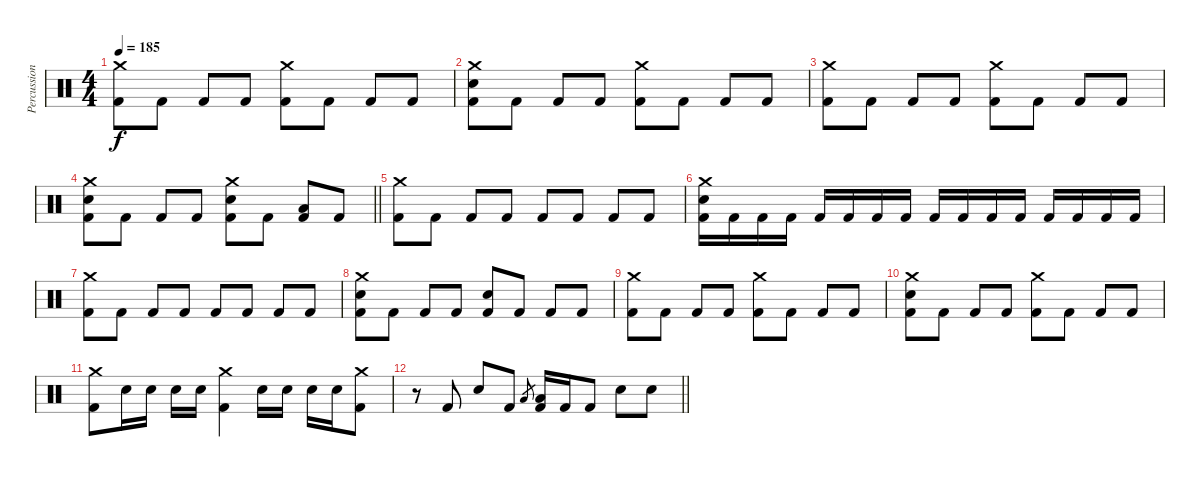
\track ("Percussions" "Percussion") {instrument percussion}
\staff {score}
\articulation defaults
\ts (4 4)
\tempo 185
\clef neutral
\ks c
("Crash medium (hit)" "Kick (hit) 2").8{dy f} "Kick (hit) 2".8 "Kick (hit) 2".8 "Kick (hit) 2".8 ("Crash medium (hit)" "Kick (hit) 2").8 "Kick (hit) 2".8 "Kick (hit) 2".8 "Kick (hit) 2".8 |
("Crash medium (hit)" "Electric Snare (hit)" "Kick (hit) 2").8 "Kick (hit) 2".8 "Kick (hit) 2".8 "Kick (hit) 2".8 ("Crash medium (hit)" "Kick (hit) 2").8 "Kick (hit) 2".8 "Kick (hit) 2".8 "Kick (hit) 2".8 |
("Crash medium (hit)" "Kick (hit) 2").8 "Kick (hit) 2".8 "Kick (hit) 2".8 "Kick (hit) 2".8 ("Crash medium (hit)" "Kick (hit) 2").8 "Kick (hit) 2".8 "Kick (hit) 2".8 "Kick (hit) 2".8 |
\barLineRight lightlight
("Crash medium (hit)" "Electric Snare (hit)" "Kick (hit) 2").8 "Kick (hit) 2".8 "Kick (hit) 2".8 "Kick (hit) 2".8 ("Crash medium (hit)" "Electric Snare (hit)" "Kick (hit) 2").8 "Kick (hit) 2".8 ("Low Tom (hit)" "Kick (hit) 2").8 "Kick (hit) 2".8 |
("Crash medium (hit)" "Kick (hit) 2").8 "Kick (hit) 2".8 "Kick (hit) 2".8 "Kick (hit) 2".8 "Kick (hit) 2".8 "Kick (hit) 2".8 "Kick (hit) 2".8 "Kick (hit) 2".8 |
("Crash medium (hit)" "Electric Snare (hit)" "Kick (hit) 2").16 "Kick (hit) 2".16 "Kick (hit) 2".16 "Kick (hit) 2".16 "Kick (hit) 2".16 "Kick (hit) 2".16 "Kick (hit) 2".16 "Kick (hit) 2".16 "Kick (hit) 2".16 "Kick (hit) 2".16 "Kick (hit) 2".16 "Kick (hit) 2".16 "Kick (hit) 2".16 "Kick (hit) 2".16 "Kick (hit) 2".16 "Kick (hit) 2".16 |
("Crash medium (hit)" "Kick (hit) 2").8 "Kick (hit) 2".8 "Kick (hit) 2".8 "Kick (hit) 2".8 "Kick (hit) 2".8 "Kick (hit) 2".8 "Kick (hit) 2".8 "Kick (hit) 2".8 |
("Crash medium (hit)" "Electric Snare (hit)" "Kick (hit) 2").8 "Kick (hit) 2".8 "Kick (hit) 2".8 "Kick (hit) 2".8 ("Electric Snare (hit)" "Kick (hit) 2").8 "Kick (hit) 2".8 "Kick (hit) 2".8 "Kick (hit) 2".8 |
("Crash medium (hit)" "Kick (hit) 2").8 "Kick (hit) 2".8 "Kick (hit) 2".8 "Kick (hit) 2".8 ("Crash medium (hit)" "Kick (hit) 2").8 "Kick (hit) 2".8 "Kick (hit) 2".8 "Kick (hit) 2".8 |
("Crash medium (hit)" "Electric Snare (hit)" "Kick (hit) 2").8 "Kick (hit) 2".8 "Kick (hit) 2".8 "Kick (hit) 2".8 ("Crash medium (hit)" "Kick (hit) 2").8 "Kick (hit) 2".8 "Kick (hit) 2".8 "Kick (hit) 2".8 |
("Crash medium (hit)" "Kick (hit) 2").8 "Electric Snare (hit)".16 "Electric Snare (hit)".16 "Electric Snare (hit)".16 "Electric Snare (hit)".16 ("Crash medium (hit)" "Kick (hit) 2").4 "Electric Snare (hit)".16 "Electric Snare (hit)".16 "Electric Snare (hit)".16 "Electric Snare (hit)".16 ("Crash medium (hit)" "Kick (hit) 2").8 |
\barLineRight lightlight
r.8 "Kick (hit) 2".8 "Electric Snare (hit)".8 "Kick (hit) 2".8 "Low Tom (hit)".8{gr} ("Low Tom (hit)" "Kick (hit) 2").16 "Kick (hit) 2".16 "Kick (hit) 2".8 "Electric Snare (hit)".8 "Electric Snare (hit)".8
